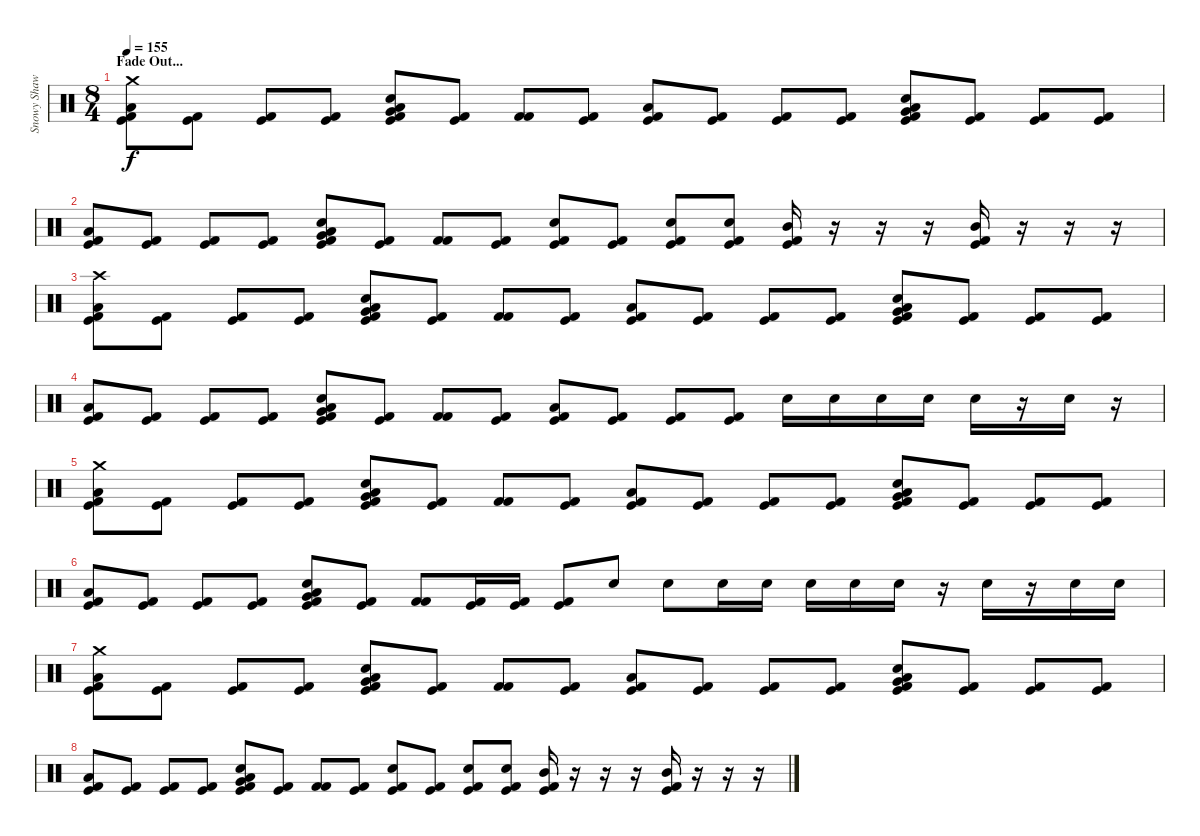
\track ("Snowy Shaw" "Snowy Shaw") {instrument percussion}
\staff {score}
\articulation defaults
\ts (8 4)
\section ("" "Fade Out...")
\tempo 155
\clef neutral
\ks c
("Crash medium (hit)" "Low Floor Tom (hit)" "Kick (hit)" "Kick (hit) 2").8{dy f volume 11} ("Kick (hit)" "Kick (hit) 2").8 ("Kick (hit)" "Kick (hit) 2").8 ("Kick (hit)" "Kick (hit) 2").8 ("Low Tom (hit)" "Very Low Tom (hit)" "Electric Snare (hit)" "Kick (hit)" "Kick (hit) 2").8 ("Kick (hit)" "Kick (hit) 2").8 ("Kick (hit) 2" "Kick (hit) 2").8 ("Kick (hit)" "Kick (hit) 2").8 ("Low Floor Tom (hit)" "Kick (hit) 2" "Kick (hit)").8 ("Kick (hit) 2" "Kick (hit)").8 ("Kick (hit)" "Kick (hit) 2").8 ("Kick (hit)" "Kick (hit) 2").8 ("Low Tom (hit)" "Very Low Tom (hit)" "Electric Snare (hit)" "Kick (hit)" "Kick (hit) 2").8 ("Kick (hit)" "Kick (hit) 2").8 ("Kick (hit)" "Kick (hit) 2").8 ("Kick (hit)" "Kick (hit) 2").8 |
("Low Floor Tom (hit)" "Kick (hit)" "Kick (hit) 2").8{volume 9} ("Kick (hit)" "Kick (hit) 2").8 ("Kick (hit)" "Kick (hit) 2").8 ("Kick (hit)" "Kick (hit) 2").8 ("Low Tom (hit)" "Very Low Tom (hit)" "Electric Snare (hit)" "Kick (hit)" "Kick (hit) 2").8 ("Kick (hit)" "Kick (hit) 2").8 ("Kick (hit) 2" "Kick (hit) 2").8 ("Kick (hit)" "Kick (hit) 2").8 ("Electric Snare (hit)" "Kick (hit) 2" "Kick (hit)").8 ("Kick (hit) 2" "Kick (hit)").8 ("Electric Snare (hit)" "Kick (hit)" "Kick (hit) 2").8 ("Electric Snare (hit)" "Kick (hit)" "Kick (hit) 2").8 ("Mid Tom (hit)" "Kick (hit)" "Kick (hit) 2").16 r.16 r.16 r.16 ("Mid Tom (hit)" "Kick (hit) 2" "Kick (hit)").16 r.16 r.16 r.16 |
("Crash high (hit)" "Low Floor Tom (hit)" "Kick (hit)" "Kick (hit) 2").8{volume 7} ("Kick (hit)" "Kick (hit) 2").8 ("Kick (hit)" "Kick (hit) 2").8 ("Kick (hit)" "Kick (hit) 2").8 ("Low Tom (hit)" "Very Low Tom (hit)" "Electric Snare (hit)" "Kick (hit)" "Kick (hit) 2").8 ("Kick (hit)" "Kick (hit) 2").8 ("Kick (hit) 2" "Kick (hit) 2").8 ("Kick (hit)" "Kick (hit) 2").8 ("Low Floor Tom (hit)" "Kick (hit) 2" "Kick (hit)").8 ("Kick (hit) 2" "Kick (hit)").8 ("Kick (hit)" "Kick (hit) 2").8 ("Kick (hit)" "Kick (hit) 2").8 ("Low Tom (hit)" "Very Low Tom (hit)" "Electric Snare (hit)" "Kick (hit)" "Kick (hit) 2").8 ("Kick (hit)" "Kick (hit) 2").8 ("Kick (hit)" "Kick (hit) 2").8 ("Kick (hit)" "Kick (hit) 2").8 |
("Low Floor Tom (hit)" "Kick (hit)" "Kick (hit) 2").8{volume 6} ("Kick (hit)" "Kick (hit) 2").8 ("Kick (hit)" "Kick (hit) 2").8 ("Kick (hit)" "Kick (hit) 2").8 ("Low Tom (hit)" "Very Low Tom (hit)" "Electric Snare (hit)" "Kick (hit)" "Kick (hit) 2").8 ("Kick (hit)" "Kick (hit) 2").8 ("Kick (hit) 2" "Kick (hit) 2").8 ("Kick (hit)" "Kick (hit) 2").8 ("Low Floor Tom (hit)" "Kick (hit) 2" "Kick (hit)").8 ("Kick (hit) 2" "Kick (hit)").8 ("Kick (hit)" "Kick (hit) 2").8 ("Kick (hit)" "Kick (hit) 2").8 "Electric Snare (hit)".16 "Electric Snare (hit)".16 "Electric Snare (hit)".16 "Electric Snare (hit)".16 "Electric Snare (hit)".16 r.16 "Electric Snare (hit)".16 r.16 |
("Crash medium (hit)" "Low Floor Tom (hit)" "Kick (hit)" "Kick (hit) 2").8{volume 4} ("Kick (hit)" "Kick (hit) 2").8 ("Kick (hit)" "Kick (hit) 2").8 ("Kick (hit)" "Kick (hit) 2").8 ("Low Tom (hit)" "Very Low Tom (hit)" "Electric Snare (hit)" "Kick (hit)" "Kick (hit) 2").8 ("Kick (hit)" "Kick (hit) 2").8 ("Kick (hit) 2" "Kick (hit) 2").8 ("Kick (hit)" "Kick (hit) 2").8 ("Low Floor Tom (hit)" "Kick (hit) 2" "Kick (hit)").8 ("Kick (hit) 2" "Kick (hit)").8 ("Kick (hit)" "Kick (hit) 2").8 ("Kick (hit)" "Kick (hit) 2").8 ("Low Tom (hit)" "Very Low Tom (hit)" "Electric Snare (hit)" "Kick (hit)" "Kick (hit) 2").8 ("Kick (hit)" "Kick (hit) 2").8 ("Kick (hit)" "Kick (hit) 2").8 ("Kick (hit)" "Kick (hit) 2").8 |
("Low Floor Tom (hit)" "Kick (hit)" "Kick (hit) 2").8{volume 3} ("Kick (hit)" "Kick (hit) 2").8 ("Kick (hit)" "Kick (hit) 2").8 ("Kick (hit)" "Kick (hit) 2").8 ("Low Tom (hit)" "Very Low Tom (hit)" "Electric Snare (hit)" "Kick (hit)" "Kick (hit) 2").8 ("Kick (hit)" "Kick (hit) 2").8 ("Kick (hit) 2" "Kick (hit) 2").8 ("Kick (hit)" "Kick (hit) 2").16 ("Kick (hit) 2" "Kick (hit)").16 ("Kick (hit) 2" "Kick (hit)").8 "Electric Snare (hit)".8 "Electric Snare (hit)".8 "Electric Snare (hit)".16 "Electric Snare (hit)".16 "Electric Snare (hit)".16 "Electric Snare (hit)".16 "Electric Snare (hit)".16 r.16 "Electric Snare (hit)".16 r.16 "Electric Snare (hit)".16 "Electric Snare (hit)".16 |
("Crash medium (hit)" "Low Floor Tom (hit)" "Kick (hit)" "Kick (hit) 2").8{volume 1} ("Kick (hit)" "Kick (hit) 2").8 ("Kick (hit)" "Kick (hit) 2").8 ("Kick (hit)" "Kick (hit) 2").8 ("Low Tom (hit)" "Very Low Tom (hit)" "Electric Snare (hit)" "Kick (hit)" "Kick (hit) 2").8 ("Kick (hit)" "Kick (hit) 2").8 ("Kick (hit) 2" "Kick (hit) 2").8 ("Kick (hit)" "Kick (hit) 2").8 ("Low Floor Tom (hit)" "Kick (hit) 2" "Kick (hit)").8 ("Kick (hit) 2" "Kick (hit)").8 ("Kick (hit)" "Kick (hit) 2").8 ("Kick (hit)" "Kick (hit) 2").8 ("Low Tom (hit)" "Very Low Tom (hit)" "Electric Snare (hit)" "Kick (hit)" "Kick (hit) 2").8 ("Kick (hit)" "Kick (hit) 2").8 ("Kick (hit)" "Kick (hit) 2").8 ("Kick (hit)" "Kick (hit) 2").8 |
("Low Floor Tom (hit)" "Kick (hit)" "Kick (hit) 2").8{volume 0} ("Kick (hit)" "Kick (hit) 2").8 ("Kick (hit)" "Kick (hit) 2").8 ("Kick (hit)" "Kick (hit) 2").8 ("Low Tom (hit)" "Very Low Tom (hit)" "Electric Snare (hit)" "Kick (hit)" "Kick (hit) 2").8 ("Kick (hit)" "Kick (hit) 2").8 ("Kick (hit) 2" "Kick (hit) 2").8 ("Kick (hit)" "Kick (hit) 2").8 ("Electric Snare (hit)" "Kick (hit) 2" "Kick (hit)").8 ("Kick (hit) 2" "Kick (hit)").8 ("Electric Snare (hit)" "Kick (hit)" "Kick (hit) 2").8 ("Electric Snare (hit)" "Kick (hit)" "Kick (hit) 2").8 ("Mid Tom (hit)" "Kick (hit)" "Kick (hit) 2").16 r.16 r.16 r.16 ("Mid Tom (hit)" "Kick (hit) 2" "Kick (hit)").16 r.16 r.16 r.16
